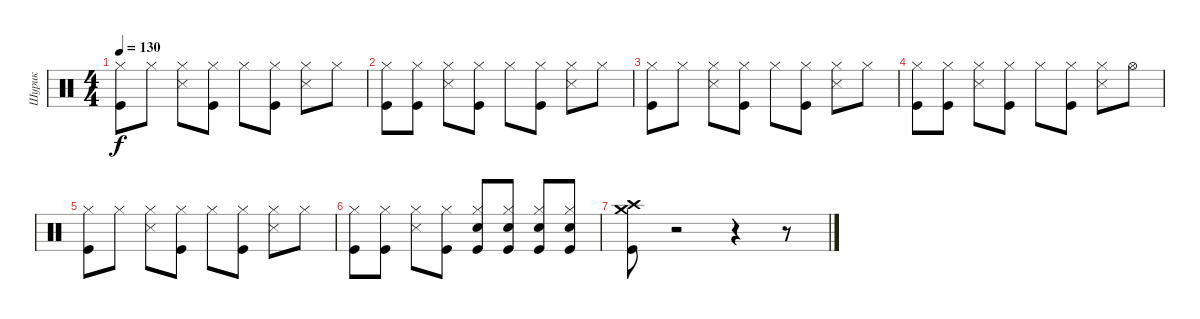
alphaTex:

\track ("Шурик" "Шурик") {instrument percussion}
\staff {score}
\articulation defaults
\ts (4 4)
\tempo 130
\clef neutral
\ks c
("Kick (hit)" "Hi-Hat (closed)").8{dy f} "Hi-Hat (closed)".8 ("Snare (side stick) 3" "Hi-Hat (closed)").8 ("Kick (hit)" "Hi-Hat (closed)").8 "Hi-Hat (closed)".8 ("Kick (hit)" "Hi-Hat (closed)").8 ("Snare (side stick) 3" "Hi-Hat (closed)").8 "Hi-Hat (closed)".8 |
("Kick (hit)" "Hi-Hat (closed)").8 ("Kick (hit)" "Hi-Hat (closed)").8 ("Snare (side stick) 3" "Hi-Hat (closed)").8 ("Kick (hit)" "Hi-Hat (closed)").8 "Hi-Hat (closed)".8 ("Kick (hit)" "Hi-Hat (closed)").8 ("Snare (side stick) 3" "Hi-Hat (closed)").8 "Hi-Hat (closed)".8 |
("Kick (hit)" "Hi-Hat (closed)").8 "Hi-Hat (closed)".8 ("Snare (side stick) 3" "Hi-Hat (closed)").8 ("Kick (hit)" "Hi-Hat (closed)").8 "Hi-Hat (closed)".8 ("Kick (hit)" "Hi-Hat (closed)").8 ("Snare (side stick) 3" "Hi-Hat (closed)").8 "Hi-Hat (closed)".8 |
("Kick (hit)" "Hi-Hat (closed)").8 ("Kick (hit)" "Hi-Hat (closed)").8 ("Snare (side stick) 3" "Hi-Hat (closed)").8 ("Kick (hit)" "Hi-Hat (closed)").8 "Hi-Hat (closed)".8 ("Kick (hit)" "Hi-Hat (closed)").8 ("Snare (side stick) 3" "Hi-Hat (closed)").8 "Hi-Hat (open)".8 |
("Kick (hit)" "Hi-Hat (closed)").8 "Hi-Hat (closed)".8 ("Snare (side stick) 3" "Hi-Hat (closed)").8 ("Kick (hit)" "Hi-Hat (closed)").8 "Hi-Hat (closed)".8 ("Kick (hit)" "Hi-Hat (closed)").8 ("Snare (side stick) 3" "Hi-Hat (closed)").8 "Hi-Hat (closed)".8 |
("Kick (hit)" "Hi-Hat (closed)").8 ("Kick (hit)" "Hi-Hat (closed)").8 ("Snare (side stick) 3" "Hi-Hat (closed)").8 ("Kick (hit)" "Hi-Hat (closed)").8 ("Kick (hit)" "Hi-Hat (closed)" "Electric Snare (hit)").8 ("Kick (hit)" "Hi-Hat (closed)" "Electric Snare (hit)").8 ("Kick (hit)" "Hi-Hat (closed)" "Electric Snare (hit)").8 ("Kick (hit)" "Hi-Hat (closed)" "Electric Snare (hit)").8 |
("Kick (hit)" "Crash high (hit)" "Crash medium (hit)").8 r.2 r.4 r.8
